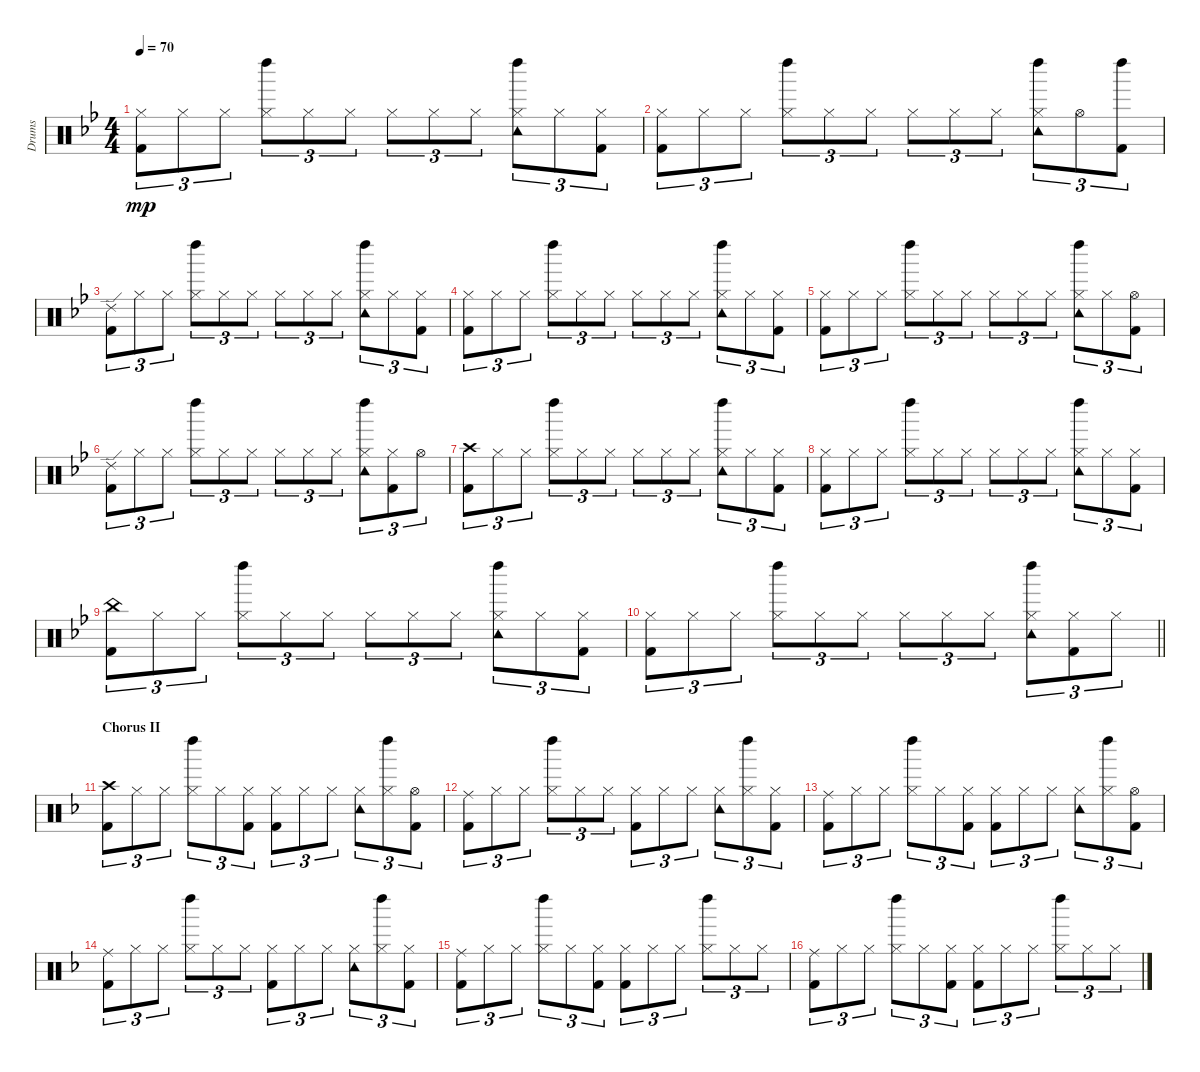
\track ("Drums" "Drums") {instrument percussion}
\staff {score}
\articulation defaults
\ts (4 4)
\tempo 70
\clef neutral
\ks bb
("Hi-Hat (closed)" "Kick (hit) 2").8{tu (3 2) dy mp} "Hi-Hat (closed)".8{tu (3 2)} "Hi-Hat (closed)".8{tu (3 2)} ("Hi-Hat (closed)" "Left Maraca (hit)").8{tu (3 2)} "Hi-Hat (closed)".8{tu (3 2)} "Hi-Hat (closed)".8{tu (3 2)} "Hi-Hat (closed)".8{tu (3 2)} "Hi-Hat (closed)".8{tu (3 2)} "Hi-Hat (closed)".8{tu (3 2)} ("Hi-Hat (closed)" "Tambourine (hit)" "Left Maraca (hit)").8{tu (3 2)} "Hi-Hat (closed)".8{tu (3 2)} ("Hi-Hat (closed)" "Kick (hit) 2").8{tu (3 2)} |
("Hi-Hat (closed)" "Kick (hit) 2").8{tu (3 2)} "Hi-Hat (closed)".8{tu (3 2)} "Hi-Hat (closed)".8{tu (3 2)} ("Hi-Hat (closed)" "Left Maraca (hit)").8{tu (3 2)} "Hi-Hat (closed)".8{tu (3 2)} "Hi-Hat (closed)".8{tu (3 2)} "Hi-Hat (closed)".8{tu (3 2)} "Hi-Hat (closed)".8{tu (3 2)} "Hi-Hat (closed)".8{tu (3 2)} ("Hi-Hat (closed)" "Tambourine (hit)" "Left Maraca (hit)").8{tu (3 2)} "Hi-Hat (open)".8{tu (3 2)} ("Kick (hit) 2" "Left Maraca (hit)").8{tu (3 2)} |
("Ride (edge) 2" "Kick (hit) 2").8{tu (3 2)} "Hi-Hat (closed)".8{tu (3 2)} "Hi-Hat (closed)".8{tu (3 2)} ("Hi-Hat (closed)" "Left Maraca (hit)").8{tu (3 2)} "Hi-Hat (closed)".8{tu (3 2)} "Hi-Hat (closed)".8{tu (3 2)} "Hi-Hat (closed)".8{tu (3 2)} "Hi-Hat (closed)".8{tu (3 2)} "Hi-Hat (closed)".8{tu (3 2)} ("Hi-Hat (closed)" "Tambourine (hit)" "Left Maraca (hit)").8{tu (3 2)} "Hi-Hat (closed)".8{tu (3 2)} ("Hi-Hat (closed)" "Kick (hit) 2").8{tu (3 2)} |
("Hi-Hat (closed)" "Kick (hit) 2").8{tu (3 2)} "Hi-Hat (closed)".8{tu (3 2)} "Hi-Hat (closed)".8{tu (3 2)} ("Hi-Hat (closed)" "Left Maraca (hit)").8{tu (3 2)} "Hi-Hat (closed)".8{tu (3 2)} "Hi-Hat (closed)".8{tu (3 2)} "Hi-Hat (closed)".8{tu (3 2)} "Hi-Hat (closed)".8{tu (3 2)} "Hi-Hat (closed)".8{tu (3 2)} ("Hi-Hat (closed)" "Tambourine (hit)" "Left Maraca (hit)").8{tu (3 2)} "Hi-Hat (closed)".8{tu (3 2)} ("Hi-Hat (closed)" "Kick (hit) 2").8{tu (3 2)} |
("Hi-Hat (closed)" "Kick (hit) 2").8{tu (3 2)} "Hi-Hat (closed)".8{tu (3 2)} "Hi-Hat (closed)".8{tu (3 2)} ("Hi-Hat (closed)" "Left Maraca (hit)").8{tu (3 2)} "Hi-Hat (closed)".8{tu (3 2)} "Hi-Hat (closed)".8{tu (3 2)} "Hi-Hat (closed)".8{tu (3 2)} "Hi-Hat (closed)".8{tu (3 2)} "Hi-Hat (closed)".8{tu (3 2)} ("Hi-Hat (closed)" "Tambourine (hit)" "Left Maraca (hit)").8{tu (3 2)} "Hi-Hat (closed)".8{tu (3 2)} ("Hi-Hat (open)" "Kick (hit) 2").8{tu (3 2)} |
("Ride (edge) 2" "Kick (hit) 2").8{tu (3 2)} "Hi-Hat (closed)".8{tu (3 2)} "Hi-Hat (closed)".8{tu (3 2)} ("Hi-Hat (closed)" "Left Maraca (hit)").8{tu (3 2)} "Hi-Hat (closed)".8{tu (3 2)} "Hi-Hat (closed)".8{tu (3 2)} "Hi-Hat (closed)".8{tu (3 2)} "Hi-Hat (closed)".8{tu (3 2)} "Hi-Hat (closed)".8{tu (3 2)} ("Hi-Hat (closed)" "Tambourine (hit)" "Left Maraca (hit)").8{tu (3 2)} ("Hi-Hat (closed)" "Kick (hit) 2").8{tu (3 2)} "Hi-Hat (open)".8{tu (3 2)} |
("Crash high (hit)" "Kick (hit) 2").8{tu (3 2)} "Hi-Hat (closed)".8{tu (3 2)} "Hi-Hat (closed)".8{tu (3 2)} ("Hi-Hat (closed)" "Left Maraca (hit)").8{tu (3 2)} "Hi-Hat (closed)".8{tu (3 2)} "Hi-Hat (closed)".8{tu (3 2)} "Hi-Hat (closed)".8{tu (3 2)} "Hi-Hat (closed)".8{tu (3 2)} "Hi-Hat (closed)".8{tu (3 2)} ("Hi-Hat (closed)" "Tambourine (hit)" "Left Maraca (hit)").8{tu (3 2)} "Hi-Hat (closed)".8{tu (3 2)} ("Hi-Hat (closed)" "Kick (hit) 2").8{tu (3 2)} |
("Hi-Hat (closed)" "Kick (hit) 2").8{tu (3 2)} "Hi-Hat (closed)".8{tu (3 2)} "Hi-Hat (closed)".8{tu (3 2)} ("Hi-Hat (closed)" "Left Maraca (hit)").8{tu (3 2)} "Hi-Hat (closed)".8{tu (3 2)} "Hi-Hat (closed)".8{tu (3 2)} "Hi-Hat (closed)".8{tu (3 2)} "Hi-Hat (closed)".8{tu (3 2)} "Hi-Hat (closed)".8{tu (3 2)} ("Hi-Hat (closed)" "Tambourine (hit)" "Left Maraca (hit)").8{tu (3 2)} "Hi-Hat (closed)".8{tu (3 2)} ("Hi-Hat (closed)" "Kick (hit) 2").8{tu (3 2)} |
("China (hit)" "Kick (hit) 2").8{tu (3 2)} "Hi-Hat (closed)".8{tu (3 2)} "Hi-Hat (closed)".8{tu (3 2)} ("Hi-Hat (closed)" "Left Maraca (hit)").8{tu (3 2)} "Hi-Hat (closed)".8{tu (3 2)} "Hi-Hat (closed)".8{tu (3 2)} "Hi-Hat (closed)".8{tu (3 2)} "Hi-Hat (closed)".8{tu (3 2)} "Hi-Hat (closed)".8{tu (3 2)} ("Hi-Hat (closed)" "Tambourine (hit)" "Left Maraca (hit)").8{tu (3 2)} "Hi-Hat (closed)".8{tu (3 2)} ("Hi-Hat (closed)" "Kick (hit) 2").8{tu (3 2)} |
\barLineRight lightlight
("Hi-Hat (closed)" "Kick (hit) 2").8{tu (3 2)} "Hi-Hat (closed)".8{tu (3 2)} "Hi-Hat (closed)".8{tu (3 2)} ("Hi-Hat (closed)" "Left Maraca (hit)").8{tu (3 2)} "Hi-Hat (closed)".8{tu (3 2)} "Hi-Hat (closed)".8{tu (3 2)} "Hi-Hat (closed)".8{tu (3 2)} "Hi-Hat (closed)".8{tu (3 2)} "Hi-Hat (closed)".8{tu (3 2)} ("Hi-Hat (closed)" "Tambourine (hit)" "Left Maraca (hit)").8{tu (3 2)} ("Hi-Hat (closed)" "Kick (hit) 2").8{tu (3 2)} "Hi-Hat (closed)".8{tu (3 2)} |
\section ("" "Chorus II")
\ks dminor
("Crash high (hit)" "Kick (hit) 2").8{tu (3 2)} "Hi-Hat (closed)".8{tu (3 2)} "Hi-Hat (closed)".8{tu (3 2)} ("Hi-Hat (closed)" "Left Maraca (hit)").8{tu (3 2)} "Hi-Hat (closed)".8{tu (3 2)} ("Hi-Hat (closed)" "Kick (hit) 2").8{tu (3 2)} ("Hi-Hat (closed)" "Kick (hit) 2").8{tu (3 2)} "Hi-Hat (closed)".8{tu (3 2)} "Hi-Hat (closed)".8{tu (3 2)} ("Hi-Hat (closed)" "Tambourine (hit)").8{tu (3 2)} ("Hi-Hat (closed)" "Left Maraca (hit)").8{tu (3 2)} ("Hi-Hat (open)" "Kick (hit) 2").8{tu (3 2)} |
("Ride (middle)" "Kick (hit) 2").8{tu (3 2)} "Hi-Hat (closed)".8{tu (3 2)} "Hi-Hat (closed)".8{tu (3 2)} ("Hi-Hat (closed)" "Left Maraca (hit)").8{tu (3 2)} "Hi-Hat (closed)".8{tu (3 2)} "Hi-Hat (closed)".8{tu (3 2)} ("Hi-Hat (closed)" "Kick (hit) 2").8{tu (3 2)} "Hi-Hat (closed)".8{tu (3 2)} "Hi-Hat (closed)".8{tu (3 2)} ("Hi-Hat (closed)" "Tambourine (hit)").8{tu (3 2)} ("Hi-Hat (closed)" "Left Maraca (hit)").8{tu (3 2)} ("Hi-Hat (closed)" "Kick (hit) 2").8{tu (3 2)} |
("Ride (middle)" "Kick (hit) 2").8{tu (3 2)} "Hi-Hat (closed)".8{tu (3 2)} "Hi-Hat (closed)".8{tu (3 2)} ("Hi-Hat (closed)" "Left Maraca (hit)").8{tu (3 2)} "Hi-Hat (closed)".8{tu (3 2)} ("Hi-Hat (closed)" "Kick (hit) 2").8{tu (3 2)} ("Hi-Hat (closed)" "Kick (hit) 2").8{tu (3 2)} "Hi-Hat (closed)".8{tu (3 2)} "Hi-Hat (closed)".8{tu (3 2)} ("Hi-Hat (closed)" "Tambourine (hit)").8{tu (3 2)} ("Hi-Hat (closed)" "Left Maraca (hit)").8{tu (3 2)} ("Hi-Hat (open)" "Kick (hit) 2").8{tu (3 2)} |
("Ride (middle)" "Kick (hit) 2").8{tu (3 2)} "Hi-Hat (closed)".8{tu (3 2)} "Hi-Hat (closed)".8{tu (3 2)} ("Hi-Hat (closed)" "Left Maraca (hit)").8{tu (3 2)} "Hi-Hat (closed)".8{tu (3 2)} "Hi-Hat (closed)".8{tu (3 2)} ("Hi-Hat (closed)" "Kick (hit) 2").8{tu (3 2)} "Hi-Hat (closed)".8{tu (3 2)} "Hi-Hat (closed)".8{tu (3 2)} ("Hi-Hat (closed)" "Tambourine (hit)").8{tu (3 2)} ("Hi-Hat (closed)" "Left Maraca (hit)").8{tu (3 2)} ("Hi-Hat (closed)" "Kick (hit) 2").8{tu (3 2)} |
("Ride (middle)" "Kick (hit) 2").8{tu (3 2)} "Hi-Hat (closed)".8{tu (3 2)} "Hi-Hat (closed)".8{tu (3 2)} ("Hi-Hat (closed)" "Left Maraca (hit)").8{tu (3 2)} "Hi-Hat (closed)".8{tu (3 2)} ("Hi-Hat (closed)" "Kick (hit) 2").8{tu (3 2)} ("Hi-Hat (closed)" "Kick (hit) 2").8{tu (3 2)} "Hi-Hat (closed)".8{tu (3 2)} "Hi-Hat (closed)".8{tu (3 2)} ("Hi-Hat (closed)" "Left Maraca (hit)").8{tu (3 2)} "Hi-Hat (closed)".8{tu (3 2)} "Hi-Hat (closed)".8{tu (3 2)} |
("Ride (middle)" "Kick (hit) 2").8{tu (3 2)} "Hi-Hat (closed)".8{tu (3 2)} "Hi-Hat (closed)".8{tu (3 2)} ("Hi-Hat (closed)" "Left Maraca (hit)").8{tu (3 2)} "Hi-Hat (closed)".8{tu (3 2)} ("Hi-Hat (closed)" "Kick (hit) 2").8{tu (3 2)} ("Hi-Hat (closed)" "Kick (hit) 2").8{tu (3 2)} "Hi-Hat (closed)".8{tu (3 2)} "Hi-Hat (closed)".8{tu (3 2)} ("Hi-Hat (closed)" "Left Maraca (hit)").8{tu (3 2)} "Hi-Hat (closed)".8{tu (3 2)} "Hi-Hat (closed)".8{tu (3 2)}
